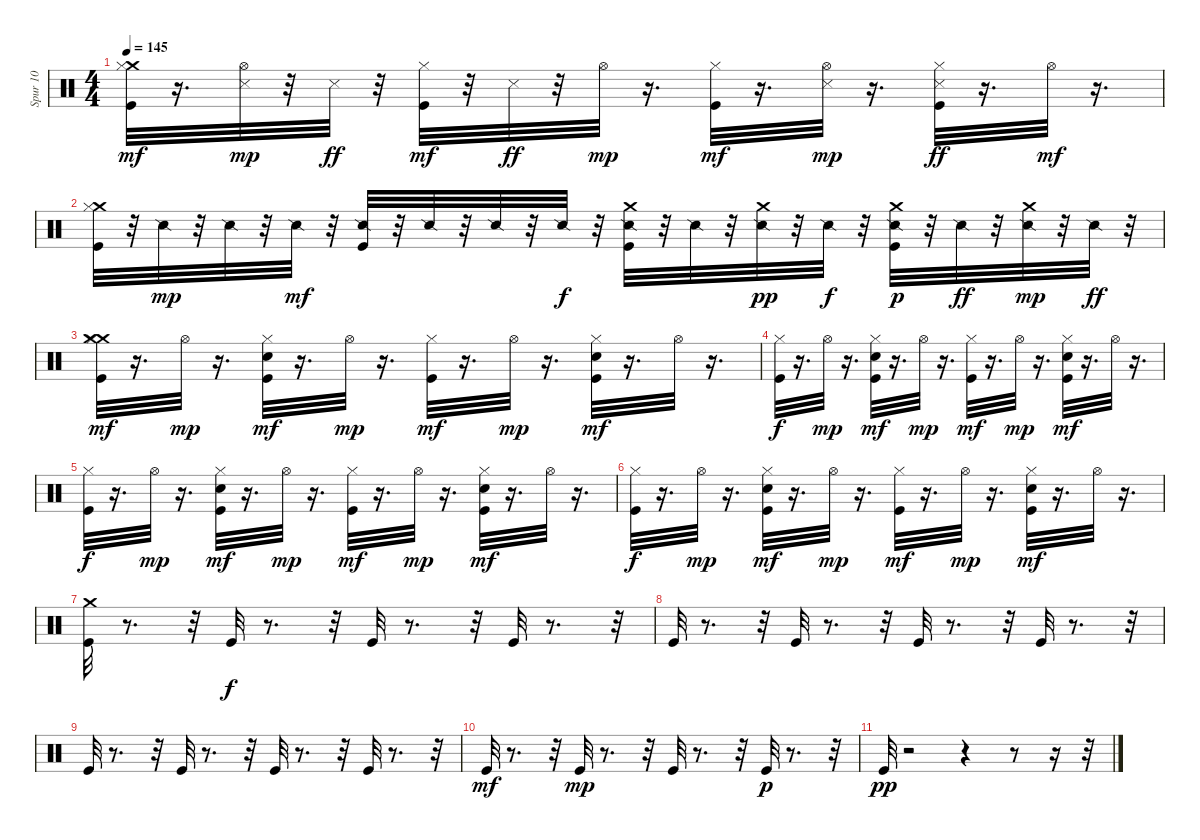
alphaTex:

\track ("Spur 10" "Spur 10") {instrument percussion}
\staff {score}
\articulation defaults
\ts (4 4)
\tempo 145
\clef neutral
\ks c
("Crash medium (hit)" "Kick (hit)" "Hi-Hat (closed)").32{dy mf balance 8} r.16{d} ("Snare (side stick) 3" "Hi-Hat (open)").32{dy mp} r.32 "Snare (side stick) 3".32{dy ff} r.32 ("Kick (hit)" "Hi-Hat (closed)").32{dy mf} r.32 "Snare (side stick) 3".32{dy ff} r.32 "Hi-Hat (open)".32{dy mp} r.16{d} ("Kick (hit)" "Hi-Hat (closed)").32{dy mf} r.16{d} ("Snare (side stick) 3" "Hi-Hat (open)").32{dy mp} r.16{d} ("Kick (hit)" "Snare (side stick) 3" "Hi-Hat (closed)").32{dy ff} r.16{d} "Hi-Hat (open)".32{dy mf} r.16{d} |
("Crash medium (hit)" "Kick (hit)" "Hi-Hat (closed)").32 r.32 "Snare (side stick) 2".32{dy mp} r.32 "Snare (side stick) 2".32 r.32 "Snare (side stick) 2".32{dy mf} r.32 ("Snare (side stick) 2" "Kick (hit)").32 r.32 "Snare (side stick) 2".32 r.32 "Snare (side stick) 2".32 r.32 "Snare (side stick) 2".32{dy f} r.32 ("Snare (side stick) 2" "Kick (hit)" "Crash medium (hit)").32{balance 10} r.32 "Snare (side stick) 2".32 r.32 ("Snare (side stick) 2" "Crash medium (hit)").32{dy pp balance 14} r.32 "Snare (side stick) 2".32{dy f} r.32 ("Snare (side stick) 2" "Kick (hit)" "Crash medium (hit)").32{dy p balance 7} r.32 "Snare (side stick) 2".32{dy ff} r.32 ("Snare (side stick) 2" "Crash medium (hit)").32{dy mp balance 0} r.32 "Snare (side stick) 2".32{dy ff} r.32 |
("Crash medium (hit)" "Kick (hit)" "Hi-Hat (closed)" "Crash medium (hit)").32{dy mf balance 8} r.16{d} "Hi-Hat (open)".32{dy mp} r.16{d} ("Kick (hit)" "Snare (hit) 2" "Hi-Hat (closed)").32{dy mf} r.16{d} "Hi-Hat (open)".32{dy mp} r.16{d} ("Kick (hit)" "Hi-Hat (closed)").32{dy mf} r.16{d} "Hi-Hat (open)".32{dy mp} r.16{d} ("Kick (hit)" "Snare (hit) 2" "Hi-Hat (closed)").32{dy mf} r.16{d} "Hi-Hat (open)".32 r.16{d} |
("Kick (hit)" "Hi-Hat (closed)").32{dy f} r.16{d} "Hi-Hat (open)".32{dy mp} r.16{d} ("Kick (hit)" "Snare (hit) 2" "Hi-Hat (closed)").32{dy mf} r.16{d} "Hi-Hat (open)".32{dy mp} r.16{d} ("Kick (hit)" "Hi-Hat (closed)").32{dy mf} r.16{d} "Hi-Hat (open)".32{dy mp} r.16{d} ("Kick (hit)" "Snare (hit) 2" "Hi-Hat (closed)").32{dy mf} r.16{d} "Hi-Hat (open)".32 r.16{d} |
("Kick (hit)" "Hi-Hat (closed)").32{dy f} r.16{d} "Hi-Hat (open)".32{dy mp} r.16{d} ("Kick (hit)" "Snare (hit) 2" "Hi-Hat (closed)").32{dy mf} r.16{d} "Hi-Hat (open)".32{dy mp} r.16{d} ("Kick (hit)" "Hi-Hat (closed)").32{dy mf} r.16{d} "Hi-Hat (open)".32{dy mp} r.16{d} ("Kick (hit)" "Snare (hit) 2" "Hi-Hat (closed)").32{dy mf} r.16{d} "Hi-Hat (open)".32 r.16{d} |
("Kick (hit)" "Hi-Hat (closed)").32{dy f} r.16{d} "Hi-Hat (open)".32{dy mp} r.16{d} ("Kick (hit)" "Snare (hit) 2" "Hi-Hat (closed)").32{dy mf} r.16{d} "Hi-Hat (open)".32{dy mp} r.16{d} ("Kick (hit)" "Hi-Hat (closed)").32{dy mf} r.16{d} "Hi-Hat (open)".32{dy mp} r.16{d} ("Kick (hit)" "Snare (hit) 2" "Hi-Hat (closed)").32{dy mf} r.16{d} "Hi-Hat (open)".32 r.16{d} |
("Kick (hit)" "Crash medium (hit)").32 r.8{d} r.32 "Kick (hit)".32{dy f} r.8{d} r.32 "Kick (hit)".32 r.8{d} r.32 "Kick (hit)".32 r.8{d} r.32 |
"Kick (hit)".32 r.8{d} r.32 "Kick (hit)".32 r.8{d} r.32 "Kick (hit)".32 r.8{d} r.32 "Kick (hit)".32 r.8{d} r.32 |
"Kick (hit)".32 r.8{d} r.32 "Kick (hit)".32 r.8{d} r.32 "Kick (hit)".32 r.8{d} r.32 "Kick (hit)".32 r.8{d} r.32 |
"Kick (hit)".32{dy mf} r.8{d} r.32 "Kick (hit)".32{dy mp} r.8{d} r.32 "Kick (hit)".32 r.8{d} r.32 "Kick (hit)".32{dy p} r.8{d} r.32 |
"Kick (hit)".32{dy pp} r.2 r.4 r.8 r.16 r.32
